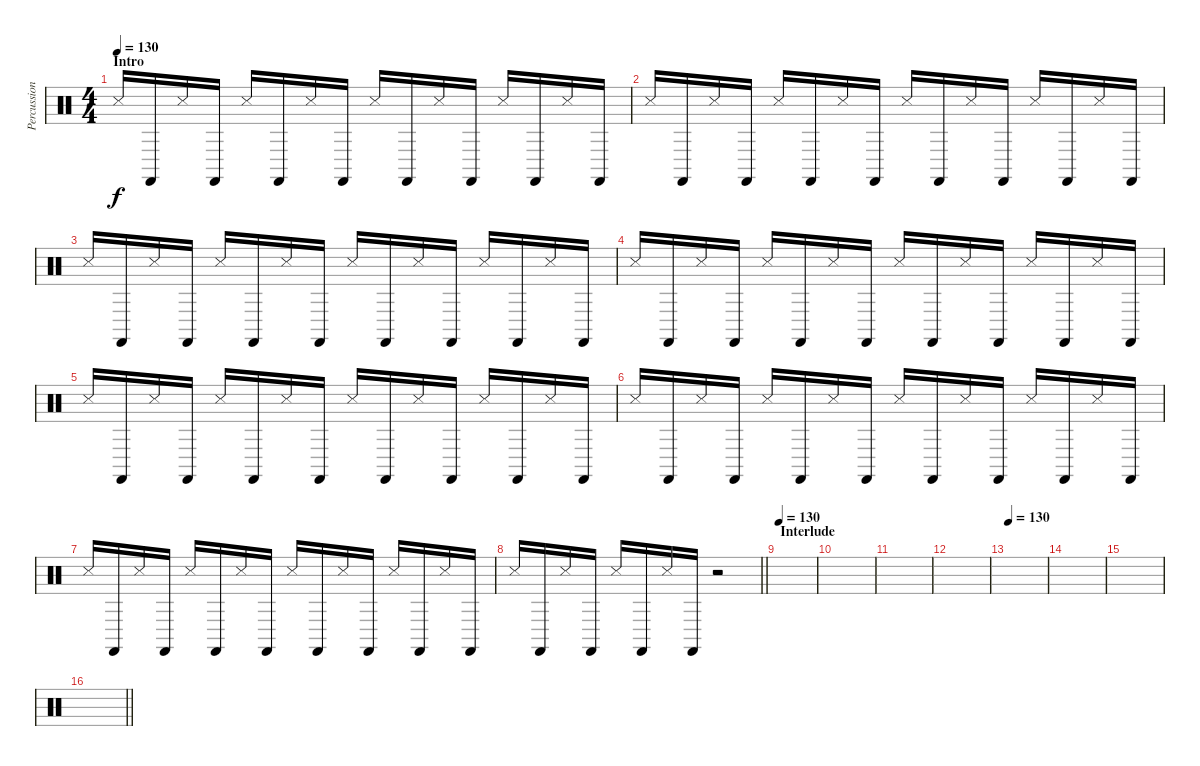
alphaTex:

\track ("Percussion" "Percussion") {instrument percussion}
\staff {score}
\articulation defaults
\ts (4 4)
\section ("" "Intro")
\tempo 130
\clef neutral
\ks c "Snare (side stick) 3".16{dy f} "Castanets (hit)".16 "Snare (side stick) 3".16{volume 11} "Castanets (hit)".16 "Snare (side stick) 3".16 "Castanets (hit)".16 "Snare (side stick) 3".16 "Castanets (hit)".16 "Snare (side stick) 3".16 "Castanets (hit)".16 "Snare (side stick) 3".16 "Castanets (hit)".16 "Snare (side stick) 3".16 "Castanets (hit)".16 "Snare (side stick) 3".16 "Castanets (hit)".16
|
"Snare (side stick) 3".16 "Castanets (hit)".16 "Snare (side stick) 3".16 "Castanets (hit)".16 "Snare (side stick) 3".16 "Castanets (hit)".16 "Snare (side stick) 3".16 "Castanets (hit)".16 "Snare (side stick) 3".16 "Castanets (hit)".16 "Snare (side stick) 3".16 "Castanets (hit)".16 "Snare (side stick) 3".16 "Castanets (hit)".16 "Snare (side stick) 3".16 "Castanets (hit)".16 |
"Snare (side stick) 3".16 "Castanets (hit)".16 "Snare (side stick) 3".16 "Castanets (hit)".16 "Snare (side stick) 3".16 "Castanets (hit)".16 "Snare (side stick) 3".16 "Castanets (hit)".16 "Snare (side stick) 3".16 "Castanets (hit)".16 "Snare (side stick) 3".16 "Castanets (hit)".16 "Snare (side stick) 3".16 "Castanets (hit)".16 "Snare (side stick) 3".16 "Castanets (hit)".16 |
"Snare (side stick) 3".16 "Castanets (hit)".16 "Snare (side stick) 3".16 "Castanets (hit)".16 "Snare (side stick) 3".16 "Castanets (hit)".16 "Snare (side stick) 3".16 "Castanets (hit)".16 "Snare (side stick) 3".16 "Castanets (hit)".16 "Snare (side stick) 3".16 "Castanets (hit)".16 "Snare (side stick) 3".16 "Castanets (hit)".16 "Snare (side stick) 3".16 "Castanets (hit)".16 |
"Snare (side stick) 3".16 "Castanets (hit)".16 "Snare (side stick) 3".16 "Castanets (hit)".16 "Snare (side stick) 3".16 "Castanets (hit)".16 "Snare (side stick) 3".16 "Castanets (hit)".16 "Snare (side stick) 3".16 "Castanets (hit)".16 "Snare (side stick) 3".16 "Castanets (hit)".16 "Snare (side stick) 3".16 "Castanets (hit)".16 "Snare (side stick) 3".16 "Castanets (hit)".16 |
"Snare (side stick) 3".16 "Castanets (hit)".16 "Snare (side stick) 3".16 "Castanets (hit)".16 "Snare (side stick) 3".16 "Castanets (hit)".16 "Snare (side stick) 3".16 "Castanets (hit)".16 "Snare (side stick) 3".16 "Castanets (hit)".16 "Snare (side stick) 3".16 "Castanets (hit)".16 "Snare (side stick) 3".16 "Castanets (hit)".16 "Snare (side stick) 3".16 "Castanets (hit)".16 |
"Snare (side stick) 3".16 "Castanets (hit)".16 "Snare (side stick) 3".16 "Castanets (hit)".16 "Snare (side stick) 3".16 "Castanets (hit)".16 "Snare (side stick) 3".16 "Castanets (hit)".16 "Snare (side stick) 3".16 "Castanets (hit)".16 "Snare (side stick) 3".16 "Castanets (hit)".16 "Snare (side stick) 3".16 "Castanets (hit)".16 "Snare (side stick) 3".16 "Castanets (hit)".16 |
\barLineRight lightlight "Snare (side stick) 3".16 "Castanets (hit)".16 "Snare (side stick) 3".16 "Castanets (hit)".16 "Snare (side stick) 3".16 "Castanets (hit)".16 "Snare (side stick) 3".16 "Castanets (hit)".16
r.2 |
\section ("" "Interlude")
\tempo 130
|
|
|
|
\tempo 130
|
|
|
\barLineRight lightlight
